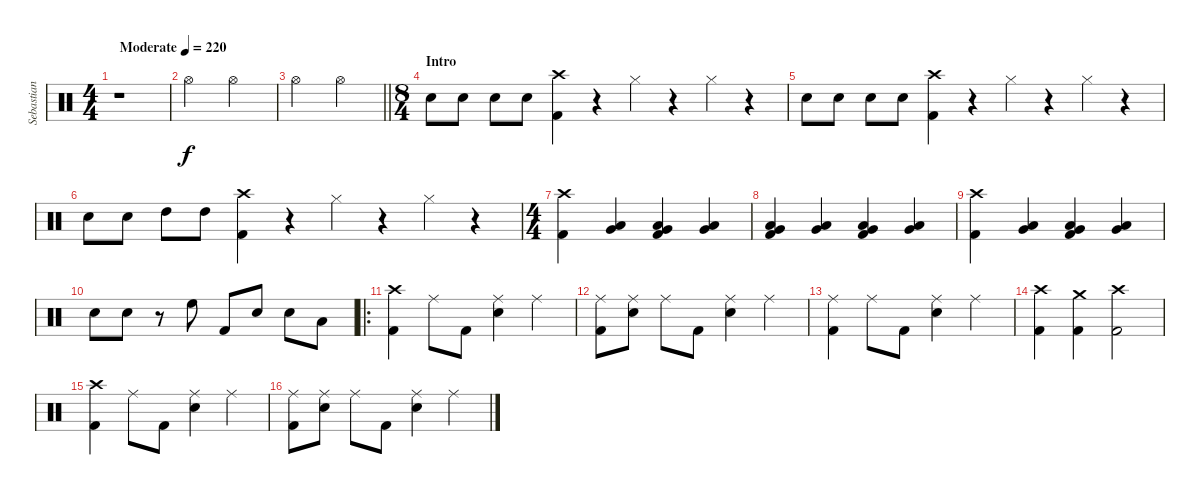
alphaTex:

\track ("Sebastian" "Sebastian") {instrument percussion}
\staff {score}
\articulation defaults
\ts (4 4)
\tempo (220 "Moderate")
\clef neutral
\ks c
r.1{dy f} |
"Hi-Hat (open)".2 "Hi-Hat (open)".2 |
\barLineRight lightlight "Hi-Hat (open)".2 "Hi-Hat (open)".2
|
\ts (8 4)
\section ("" "Intro")
"Snare (hit) 2".8 "Snare (hit) 2".8 "Snare (hit) 2".8 "Snare (hit) 2".8 ("Crash high (hit)" "Kick (hit) 2").4 r.4 "Hi-Hat (closed)".4 r.4 "Hi-Hat (closed)".4 r.4 |
"Snare (hit) 2".8 "Snare (hit) 2".8 "Snare (hit) 2".8 "Snare (hit) 2".8 ("Crash high (hit)" "Kick (hit) 2").4 r.4 "Hi-Hat (closed)".4 r.4 "Hi-Hat (closed)".4 r.4 |
"Snare (hit) 2".8 "Snare (hit) 2".8 "High Tom (hit)".8 "High Tom (hit)".8 ("Crash high (hit)" "Kick (hit) 2").4 r.4 "Hi-Hat (closed)".4 r.4 "Hi-Hat (closed)".4 r.4 |
\ts (4 4)
("Crash high (hit)" "Kick (hit) 2").4 ("Low Tom (hit)" "Very Low Tom (hit)").4 ("Low Tom (hit)" "Very Low Tom (hit)" "Kick (hit) 2").4 ("Low Tom (hit)" "Very Low Tom (hit)").4 |
("Low Tom (hit)" "Very Low Tom (hit)" "Kick (hit) 2").4 ("Low Tom (hit)" "Very Low Tom (hit)").4 ("Low Tom (hit)" "Very Low Tom (hit)" "Kick (hit) 2").4 ("Low Tom (hit)" "Very Low Tom (hit)").4 |
("Crash high (hit)" "Kick (hit) 2").4 ("Low Tom (hit)" "Very Low Tom (hit)").4 ("Low Tom (hit)" "Very Low Tom (hit)" "Kick (hit) 2").4 ("Low Tom (hit)" "Very Low Tom (hit)").4 |
"Snare (hit) 2".8 "Snare (hit) 2".8 r.8 "High Floor Tom (hit)".8 "Kick (hit) 2".8 "Snare (hit) 2".8 "Snare (hit) 2".8 "Low Tom (hit)".8 |
\ro
("Crash high (hit)" "Kick (hit) 2").4 "Ride (middle)".8 "Kick (hit) 2".8 ("Ride (middle)" "Snare (hit) 2").4 "Ride (middle)".4 |
("Ride (middle)" "Kick (hit) 2").8 ("Ride (middle)" "Snare (hit) 2").8 "Ride (middle)".8 "Kick (hit) 2".8 ("Ride (middle)" "Snare (hit) 2").4 "Ride (middle)".4 |
("Ride (middle)" "Kick (hit) 2").4 "Ride (middle)".8 "Kick (hit) 2".8 ("Ride (middle)" "Snare (hit) 2").4 "Ride (middle)".4 |
("Crash high (hit)" "Kick (hit) 2").4 ("Crash medium (hit)" "Kick (hit) 2").4 ("Crash high (hit)" "Kick (hit) 2").2 |
("Crash high (hit)" "Kick (hit) 2").4 "Ride (middle)".8 "Kick (hit) 2".8 ("Ride (middle)" "Snare (hit) 2").4 "Ride (middle)".4 |
("Ride (middle)" "Kick (hit) 2").8 ("Ride (middle)" "Snare (hit) 2").8 "Ride (middle)".8 "Kick (hit) 2".8 ("Ride (middle)" "Snare (hit) 2").4 "Ride (middle)".4
